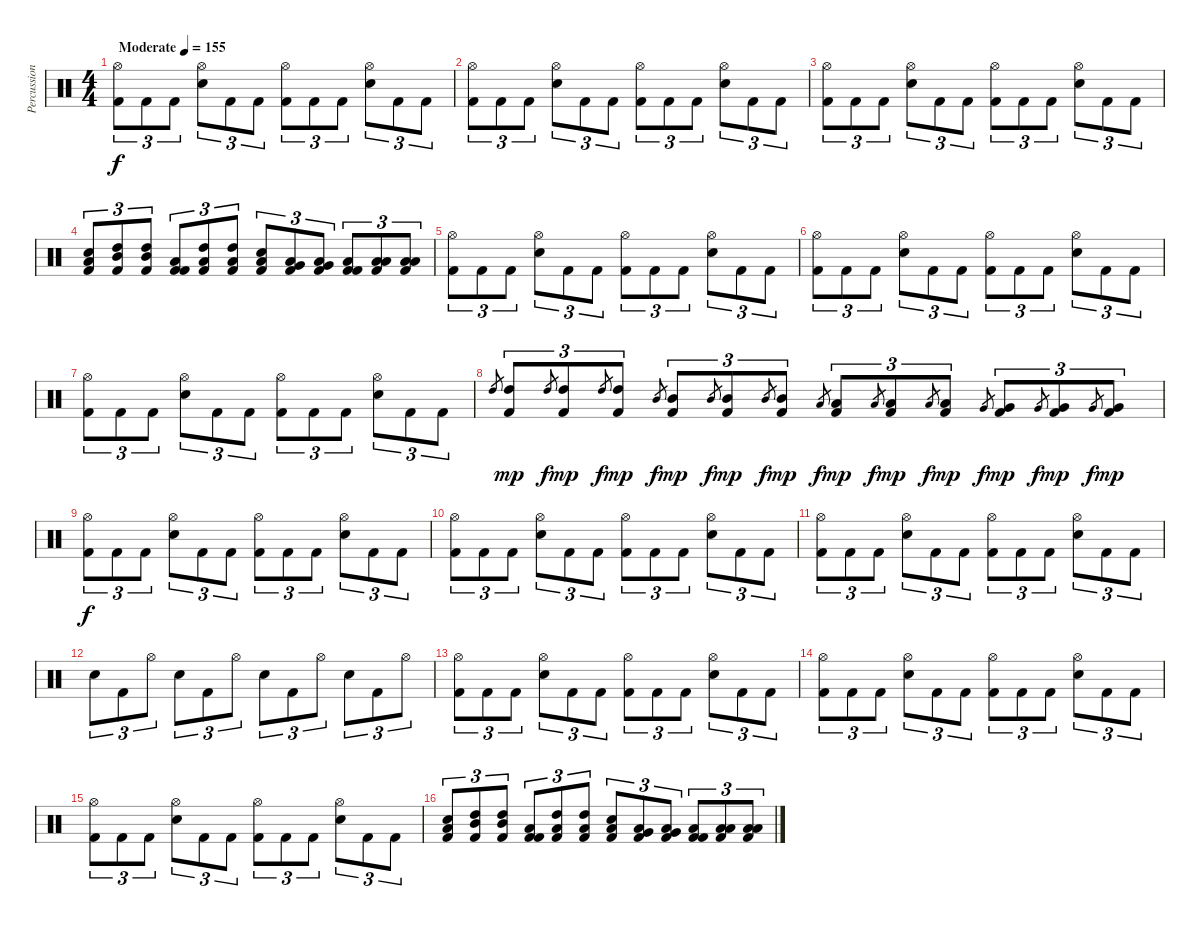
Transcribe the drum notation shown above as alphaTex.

\track ("Percussion" "Percussion") {instrument percussion}
\staff {score}
\articulation defaults
\ts (4 4)
\tempo (155 "Moderate")
\clef neutral
\ks c
("Hi-Hat (open)" "Kick (hit) 2").8{tu (3 2) dy f} "Kick (hit) 2".8{tu (3 2)} "Kick (hit) 2".8{tu (3 2)} ("Hi-Hat (open)" "Snare (hit) 2").8{tu (3 2)} "Kick (hit) 2".8{tu (3 2)} "Kick (hit) 2".8{tu (3 2)} ("Hi-Hat (open)" "Kick (hit) 2").8{tu (3 2)} "Kick (hit) 2".8{tu (3 2)} "Kick (hit) 2".8{tu (3 2)} ("Hi-Hat (open)" "Snare (hit) 2").8{tu (3 2)} "Kick (hit) 2".8{tu (3 2)} "Kick (hit) 2".8{tu (3 2)} |
("Hi-Hat (open)" "Kick (hit) 2").8{tu (3 2)} "Kick (hit) 2".8{tu (3 2)} "Kick (hit) 2".8{tu (3 2)} ("Hi-Hat (open)" "Snare (hit) 2").8{tu (3 2)} "Kick (hit) 2".8{tu (3 2)} "Kick (hit) 2".8{tu (3 2)} ("Hi-Hat (open)" "Kick (hit) 2").8{tu (3 2)} "Kick (hit) 2".8{tu (3 2)} "Kick (hit) 2".8{tu (3 2)} ("Hi-Hat (open)" "Snare (hit) 2").8{tu (3 2)} "Kick (hit) 2".8{tu (3 2)} "Kick (hit) 2".8{tu (3 2)} |
("Hi-Hat (open)" "Kick (hit) 2").8{tu (3 2)} "Kick (hit) 2".8{tu (3 2)} "Kick (hit) 2".8{tu (3 2)} ("Hi-Hat (open)" "Snare (hit) 2").8{tu (3 2)} "Kick (hit) 2".8{tu (3 2)} "Kick (hit) 2".8{tu (3 2)} ("Hi-Hat (open)" "Kick (hit) 2").8{tu (3 2)} "Kick (hit) 2".8{tu (3 2)} "Kick (hit) 2".8{tu (3 2)} ("Hi-Hat (open)" "Snare (hit) 2").8{tu (3 2)} "Kick (hit) 2".8{tu (3 2)} "Kick (hit) 2".8{tu (3 2)} |
("Low Tom (hit)" "Snare (hit) 2" "Kick (hit) 2").8{tu (3 2)} ("Mid Tom (hit)" "High Tom (hit)" "Kick (hit) 2").8{tu (3 2)} ("Mid Tom (hit)" "High Tom (hit)" "Kick (hit) 2").8{tu (3 2)} ("Low Tom (hit)" "Kick (hit) 2" "Kick (hit) 2").8{tu (3 2)} ("Low Tom (hit)" "High Tom (hit)" "Kick (hit) 2").8{tu (3 2)} ("Low Tom (hit)" "High Tom (hit)" "Kick (hit) 2").8{tu (3 2)} ("Low Tom (hit)" "Snare (hit) 2" "Kick (hit) 2").8{tu (3 2)} ("Low Tom (hit)" "Very Low Tom (hit)" "Kick (hit) 2").8{tu (3 2)} ("Low Tom (hit)" "Very Low Tom (hit)" "Kick (hit) 2").8{tu (3 2)} ("Low Tom (hit)" "Kick (hit) 2" "Kick (hit) 2").8{tu (3 2)} ("Low Tom (hit)" "Low Floor Tom (hit)" "Kick (hit) 2").8{tu (3 2)} ("Low Tom (hit)" "Low Floor Tom (hit)" "Kick (hit) 2").8{tu (3 2)} |
("Hi-Hat (open)" "Kick (hit) 2").8{tu (3 2)} "Kick (hit) 2".8{tu (3 2)} "Kick (hit) 2".8{tu (3 2)} ("Hi-Hat (open)" "Snare (hit) 2").8{tu (3 2)} "Kick (hit) 2".8{tu (3 2)} "Kick (hit) 2".8{tu (3 2)} ("Hi-Hat (open)" "Kick (hit) 2").8{tu (3 2)} "Kick (hit) 2".8{tu (3 2)} "Kick (hit) 2".8{tu (3 2)} ("Hi-Hat (open)" "Snare (hit) 2").8{tu (3 2)} "Kick (hit) 2".8{tu (3 2)} "Kick (hit) 2".8{tu (3 2)} |
("Hi-Hat (open)" "Kick (hit) 2").8{tu (3 2)} "Kick (hit) 2".8{tu (3 2)} "Kick (hit) 2".8{tu (3 2)} ("Hi-Hat (open)" "Snare (hit) 2").8{tu (3 2)} "Kick (hit) 2".8{tu (3 2)} "Kick (hit) 2".8{tu (3 2)} ("Hi-Hat (open)" "Kick (hit) 2").8{tu (3 2)} "Kick (hit) 2".8{tu (3 2)} "Kick (hit) 2".8{tu (3 2)} ("Hi-Hat (open)" "Snare (hit) 2").8{tu (3 2)} "Kick (hit) 2".8{tu (3 2)} "Kick (hit) 2".8{tu (3 2)} |
("Hi-Hat (open)" "Kick (hit) 2").8{tu (3 2)} "Kick (hit) 2".8{tu (3 2)} "Kick (hit) 2".8{tu (3 2)} ("Hi-Hat (open)" "Snare (hit) 2").8{tu (3 2)} "Kick (hit) 2".8{tu (3 2)} "Kick (hit) 2".8{tu (3 2)} ("Hi-Hat (open)" "Kick (hit) 2").8{tu (3 2)} "Kick (hit) 2".8{tu (3 2)} "Kick (hit) 2".8{tu (3 2)} ("Hi-Hat (open)" "Snare (hit) 2").8{tu (3 2)} "Kick (hit) 2".8{tu (3 2)} "Kick (hit) 2".8{tu (3 2)} |
"High Tom (hit)".8{gr} ("High Tom (hit)" "Kick (hit) 2").8{tu (3 2) dy mp} "High Tom (hit)".8{gr dy f} ("High Tom (hit)" "Kick (hit) 2").8{tu (3 2) dy mp} "High Tom (hit)".8{gr dy f} ("High Tom (hit)" "Kick (hit) 2").8{tu (3 2) dy mp} "Mid Tom (hit)".8{gr dy f} ("Mid Tom (hit)" "Kick (hit) 2").8{tu (3 2) dy mp} "Mid Tom (hit)".8{gr dy f} ("Mid Tom (hit)" "Kick (hit) 2").8{tu (3 2) dy mp} "Mid Tom (hit)".8{gr dy f} ("Mid Tom (hit)" "Kick (hit) 2").8{tu (3 2) dy mp} "Low Tom (hit)".8{gr dy f} ("Low Tom (hit)" "Kick (hit) 2").8{tu (3 2) dy mp} "Low Tom (hit)".8{gr dy f} ("Low Tom (hit)" "Kick (hit) 2").8{tu (3 2) dy mp} "Low Tom (hit)".8{gr dy f} ("Low Tom (hit)" "Kick (hit) 2").8{tu (3 2) dy mp} "Very Low Tom (hit)".8{gr dy f} ("Very Low Tom (hit)" "Kick (hit) 2").8{tu (3 2) dy mp} "Very Low Tom (hit)".8{gr dy f} ("Very Low Tom (hit)" "Kick (hit) 2").8{tu (3 2) dy mp} "Very Low Tom (hit)".8{gr dy f} ("Very Low Tom (hit)" "Kick (hit) 2").8{tu (3 2) dy mp} |
("Hi-Hat (open)" "Kick (hit) 2").8{tu (3 2) dy f} "Kick (hit) 2".8{tu (3 2)} "Kick (hit) 2".8{tu (3 2)} ("Hi-Hat (open)" "Snare (hit) 2").8{tu (3 2)} "Kick (hit) 2".8{tu (3 2)} "Kick (hit) 2".8{tu (3 2)} ("Hi-Hat (open)" "Kick (hit) 2").8{tu (3 2)} "Kick (hit) 2".8{tu (3 2)} "Kick (hit) 2".8{tu (3 2)} ("Hi-Hat (open)" "Snare (hit) 2").8{tu (3 2)} "Kick (hit) 2".8{tu (3 2)} "Kick (hit) 2".8{tu (3 2)} |
("Hi-Hat (open)" "Kick (hit) 2").8{tu (3 2)} "Kick (hit) 2".8{tu (3 2)} "Kick (hit) 2".8{tu (3 2)} ("Hi-Hat (open)" "Snare (hit) 2").8{tu (3 2)} "Kick (hit) 2".8{tu (3 2)} "Kick (hit) 2".8{tu (3 2)} ("Hi-Hat (open)" "Kick (hit) 2").8{tu (3 2)} "Kick (hit) 2".8{tu (3 2)} "Kick (hit) 2".8{tu (3 2)} ("Hi-Hat (open)" "Snare (hit) 2").8{tu (3 2)} "Kick (hit) 2".8{tu (3 2)} "Kick (hit) 2".8{tu (3 2)} |
("Hi-Hat (open)" "Kick (hit) 2").8{tu (3 2)} "Kick (hit) 2".8{tu (3 2)} "Kick (hit) 2".8{tu (3 2)} ("Hi-Hat (open)" "Snare (hit) 2").8{tu (3 2)} "Kick (hit) 2".8{tu (3 2)} "Kick (hit) 2".8{tu (3 2)} ("Hi-Hat (open)" "Kick (hit) 2").8{tu (3 2)} "Kick (hit) 2".8{tu (3 2)} "Kick (hit) 2".8{tu (3 2)} ("Hi-Hat (open)" "Snare (hit) 2").8{tu (3 2)} "Kick (hit) 2".8{tu (3 2)} "Kick (hit) 2".8{tu (3 2)} |
"Snare (hit) 2".8{tu (3 2)} "Kick (hit) 2".8{tu (3 2)} "Hi-Hat (open)".8{tu (3 2)} "Snare (hit) 2".8{tu (3 2)} "Kick (hit) 2".8{tu (3 2)} "Hi-Hat (open)".8{tu (3 2)} "Snare (hit) 2".8{tu (3 2)} "Kick (hit) 2".8{tu (3 2)} "Hi-Hat (open)".8{tu (3 2)} "Snare (hit) 2".8{tu (3 2)} "Kick (hit) 2".8{tu (3 2)} "Hi-Hat (open)".8{tu (3 2)} |
("Hi-Hat (open)" "Kick (hit) 2").8{tu (3 2)} "Kick (hit) 2".8{tu (3 2)} "Kick (hit) 2".8{tu (3 2)} ("Hi-Hat (open)" "Snare (hit) 2").8{tu (3 2)} "Kick (hit) 2".8{tu (3 2)} "Kick (hit) 2".8{tu (3 2)} ("Hi-Hat (open)" "Kick (hit) 2").8{tu (3 2)} "Kick (hit) 2".8{tu (3 2)} "Kick (hit) 2".8{tu (3 2)} ("Hi-Hat (open)" "Snare (hit) 2").8{tu (3 2)} "Kick (hit) 2".8{tu (3 2)} "Kick (hit) 2".8{tu (3 2)} |
("Hi-Hat (open)" "Kick (hit) 2").8{tu (3 2)} "Kick (hit) 2".8{tu (3 2)} "Kick (hit) 2".8{tu (3 2)} ("Hi-Hat (open)" "Snare (hit) 2").8{tu (3 2)} "Kick (hit) 2".8{tu (3 2)} "Kick (hit) 2".8{tu (3 2)} ("Hi-Hat (open)" "Kick (hit) 2").8{tu (3 2)} "Kick (hit) 2".8{tu (3 2)} "Kick (hit) 2".8{tu (3 2)} ("Hi-Hat (open)" "Snare (hit) 2").8{tu (3 2)} "Kick (hit) 2".8{tu (3 2)} "Kick (hit) 2".8{tu (3 2)} |
("Hi-Hat (open)" "Kick (hit) 2").8{tu (3 2)} "Kick (hit) 2".8{tu (3 2)} "Kick (hit) 2".8{tu (3 2)} ("Hi-Hat (open)" "Snare (hit) 2").8{tu (3 2)} "Kick (hit) 2".8{tu (3 2)} "Kick (hit) 2".8{tu (3 2)} ("Hi-Hat (open)" "Kick (hit) 2").8{tu (3 2)} "Kick (hit) 2".8{tu (3 2)} "Kick (hit) 2".8{tu (3 2)} ("Hi-Hat (open)" "Snare (hit) 2").8{tu (3 2)} "Kick (hit) 2".8{tu (3 2)} "Kick (hit) 2".8{tu (3 2)} |
("Low Tom (hit)" "Snare (hit) 2" "Kick (hit) 2").8{tu (3 2)} ("Mid Tom (hit)" "High Tom (hit)" "Kick (hit) 2").8{tu (3 2)} ("Mid Tom (hit)" "High Tom (hit)" "Kick (hit) 2").8{tu (3 2)} ("Low Tom (hit)" "Kick (hit) 2" "Kick (hit) 2").8{tu (3 2)} ("Low Tom (hit)" "High Tom (hit)" "Kick (hit) 2").8{tu (3 2)} ("Low Tom (hit)" "High Tom (hit)" "Kick (hit) 2").8{tu (3 2)} ("Low Tom (hit)" "Snare (hit) 2" "Kick (hit) 2").8{tu (3 2)} ("Low Tom (hit)" "Very Low Tom (hit)" "Kick (hit) 2").8{tu (3 2)} ("Low Tom (hit)" "Very Low Tom (hit)" "Kick (hit) 2").8{tu (3 2)} ("Low Tom (hit)" "Kick (hit) 2" "Kick (hit) 2").8{tu (3 2)} ("Low Tom (hit)" "Low Floor Tom (hit)" "Kick (hit) 2").8{tu (3 2)} ("Low Tom (hit)" "Low Floor Tom (hit)" "Kick (hit) 2").8{tu (3 2)}
